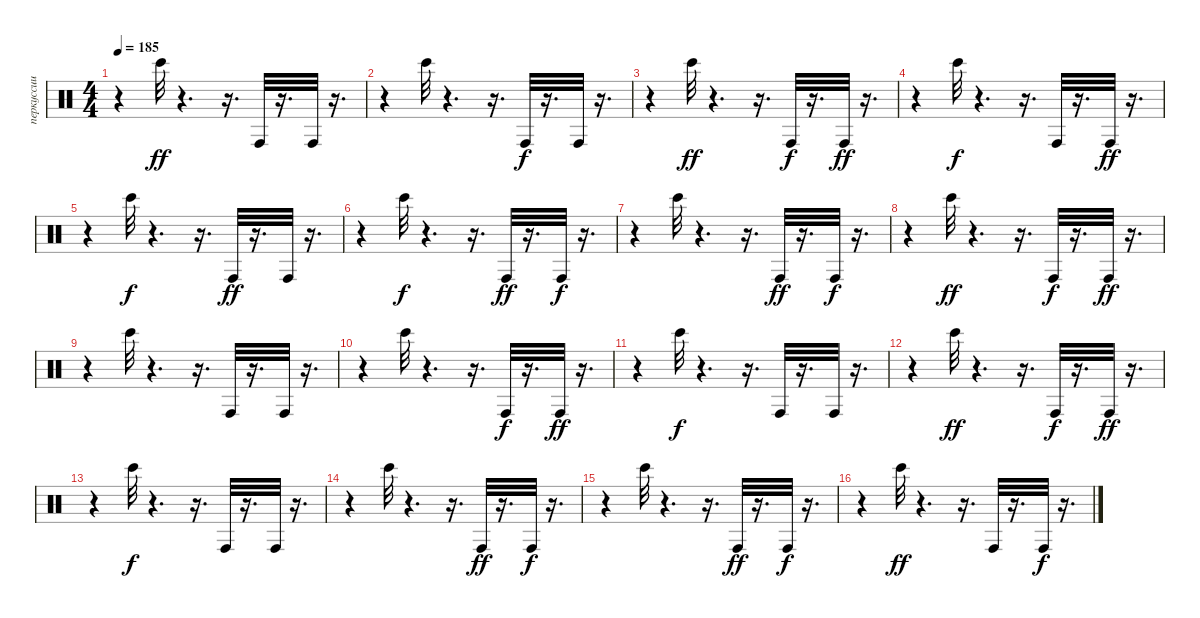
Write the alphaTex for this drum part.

\track ("перкуссии" "перкуссии") {instrument percussion}
\staff {score}
\articulation defaults
\ts (4 4)
\tempo 185
\clef neutral
\ks c
r.4{dy ff} "Bongo High (hit)".32 r.4{d} r.16{d} "Conga high (hit)".32 r.16{d} "Conga high (hit)".32 r.16{d} |
r.4 "Bongo High (hit)".32 r.4{d} r.16{d} "Conga high (hit)".32{dy f} r.16{d} "Conga high (hit)".32 r.16{d} |
r.4 "Bongo High (hit)".32{dy ff} r.4{d} r.16{d} "Conga high (hit)".32{dy f} r.16{d} "Conga high (hit)".32{dy ff} r.16{d} |
r.4 "Bongo High (hit)".32{dy f} r.4{d} r.16{d} "Conga high (hit)".32 r.16{d} "Conga high (hit)".32{dy ff} r.16{d} |
r.4 "Bongo High (hit)".32{dy f} r.4{d} r.16{d} "Conga high (hit)".32{dy ff} r.16{d} "Conga high (hit)".32 r.16{d} |
r.4 "Bongo High (hit)".32{dy f} r.4{d} r.16{d} "Conga high (hit)".32{dy ff} r.16{d} "Conga high (hit)".32{dy f} r.16{d} |
r.4 "Bongo High (hit)".32 r.4{d} r.16{d} "Conga high (hit)".32{dy ff} r.16{d} "Conga high (hit)".32{dy f} r.16{d} |
r.4 "Bongo High (hit)".32{dy ff} r.4{d} r.16{d} "Conga high (hit)".32{dy f} r.16{d} "Conga high (hit)".32{dy ff} r.16{d} |
r.4 "Bongo High (hit)".32 r.4{d} r.16{d} "Conga high (hit)".32 r.16{d} "Conga high (hit)".32 r.16{d} |
r.4 "Bongo High (hit)".32 r.4{d} r.16{d} "Conga high (hit)".32{dy f} r.16{d} "Conga high (hit)".32{dy ff} r.16{d} |
r.4 "Bongo High (hit)".32{dy f} r.4{d} r.16{d} "Conga high (hit)".32 r.16{d} "Conga high (hit)".32 r.16{d} |
r.4 "Bongo High (hit)".32{dy ff} r.4{d} r.16{d} "Conga high (hit)".32{dy f} r.16{d} "Conga high (hit)".32{dy ff} r.16{d} |
r.4 "Bongo High (hit)".32{dy f} r.4{d} r.16{d} "Conga high (hit)".32 r.16{d} "Conga high (hit)".32 r.16{d} |
r.4 "Bongo High (hit)".32 r.4{d} r.16{d} "Conga high (hit)".32{dy ff} r.16{d} "Conga high (hit)".32{dy f} r.16{d} |
r.4 "Bongo High (hit)".32 r.4{d} r.16{d} "Conga high (hit)".32{dy ff} r.16{d} "Conga high (hit)".32{dy f} r.16{d} |
r.4 "Bongo High (hit)".32{dy ff} r.4{d} r.16{d} "Conga high (hit)".32 r.16{d} "Conga high (hit)".32{dy f} r.16{d}
